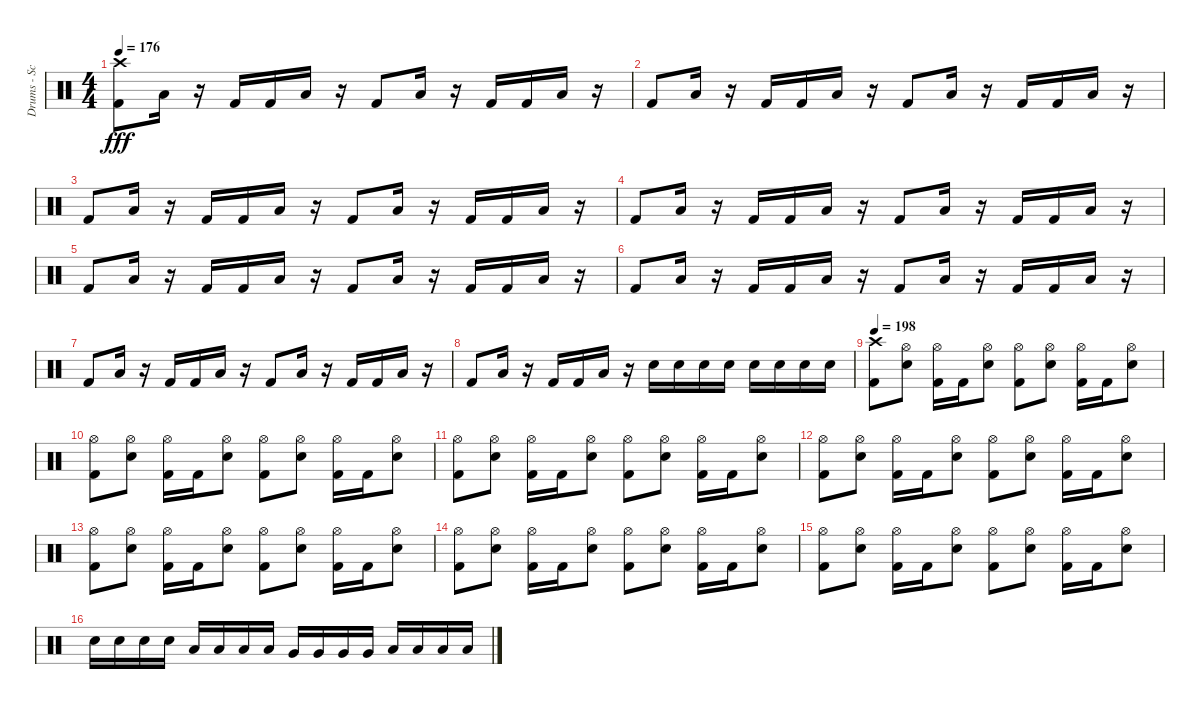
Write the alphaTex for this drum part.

\track ("Drums - Scott" "Drums - Sc") {instrument percussion}
\staff {score}
\articulation defaults
\ts (4 4)
\tempo 176
\clef neutral
\ks c
("Crash high (hit)" "Kick (hit) 2").8{dy fff} "Low Tom (hit)".16 r.16 "Kick (hit) 2".16 "Kick (hit) 2".16 "Low Tom (hit)".16 r.16 "Kick (hit) 2".8 "Low Tom (hit)".16 r.16 "Kick (hit) 2".16 "Kick (hit) 2".16 "Low Tom (hit)".16 r.16 |
"Kick (hit) 2".8 "Low Tom (hit)".16 r.16 "Kick (hit) 2".16 "Kick (hit) 2".16 "Low Tom (hit)".16 r.16 "Kick (hit) 2".8 "Low Tom (hit)".16 r.16 "Kick (hit) 2".16 "Kick (hit) 2".16 "Low Tom (hit)".16 r.16 |
"Kick (hit) 2".8 "Low Tom (hit)".16 r.16 "Kick (hit) 2".16 "Kick (hit) 2".16 "Low Tom (hit)".16 r.16 "Kick (hit) 2".8 "Low Tom (hit)".16 r.16 "Kick (hit) 2".16 "Kick (hit) 2".16 "Low Tom (hit)".16 r.16 |
"Kick (hit) 2".8 "Low Tom (hit)".16 r.16 "Kick (hit) 2".16 "Kick (hit) 2".16 "Low Tom (hit)".16 r.16 "Kick (hit) 2".8 "Low Tom (hit)".16 r.16 "Kick (hit) 2".16 "Kick (hit) 2".16 "Low Tom (hit)".16 r.16 |
"Kick (hit) 2".8 "Low Tom (hit)".16 r.16 "Kick (hit) 2".16 "Kick (hit) 2".16 "Low Tom (hit)".16 r.16 "Kick (hit) 2".8 "Low Tom (hit)".16 r.16 "Kick (hit) 2".16 "Kick (hit) 2".16 "Low Tom (hit)".16 r.16 |
"Kick (hit) 2".8 "Low Tom (hit)".16 r.16 "Kick (hit) 2".16 "Kick (hit) 2".16 "Low Tom (hit)".16 r.16 "Kick (hit) 2".8 "Low Tom (hit)".16 r.16 "Kick (hit) 2".16 "Kick (hit) 2".16 "Low Tom (hit)".16 r.16 |
"Kick (hit) 2".8 "Low Tom (hit)".16 r.16 "Kick (hit) 2".16 "Kick (hit) 2".16 "Low Tom (hit)".16 r.16 "Kick (hit) 2".8 "Low Tom (hit)".16 r.16 "Kick (hit) 2".16 "Kick (hit) 2".16 "Low Tom (hit)".16 r.16 |
"Kick (hit) 2".8 "Low Tom (hit)".16 r.16 "Kick (hit) 2".16 "Kick (hit) 2".16 "Low Tom (hit)".16 r.16 "Electric Snare (hit)".16 "Electric Snare (hit)".16 "Electric Snare (hit)".16 "Electric Snare (hit)".16 "Electric Snare (hit)".16 "Electric Snare (hit)".16 "Electric Snare (hit)".16 "Electric Snare (hit)".16 |
\tempo 198
("Crash high (hit)" "Kick (hit) 2").8 ("Hi-Hat (open)" "Electric Snare (hit)").8 ("Hi-Hat (open)" "Kick (hit) 2").16 "Kick (hit) 2".16 ("Hi-Hat (open)" "Electric Snare (hit)").8 ("Hi-Hat (open)" "Kick (hit) 2").8 ("Hi-Hat (open)" "Electric Snare (hit)").8 ("Hi-Hat (open)" "Kick (hit) 2").16 "Kick (hit) 2".16 ("Hi-Hat (open)" "Electric Snare (hit)").8 |
("Hi-Hat (open)" "Kick (hit) 2").8 ("Hi-Hat (open)" "Electric Snare (hit)").8 ("Hi-Hat (open)" "Kick (hit) 2").16 "Kick (hit) 2".16 ("Hi-Hat (open)" "Electric Snare (hit)").8 ("Hi-Hat (open)" "Kick (hit) 2").8 ("Hi-Hat (open)" "Electric Snare (hit)").8 ("Hi-Hat (open)" "Kick (hit) 2").16 "Kick (hit) 2".16 ("Hi-Hat (open)" "Electric Snare (hit)").8 |
("Hi-Hat (open)" "Kick (hit) 2").8 ("Hi-Hat (open)" "Electric Snare (hit)").8 ("Hi-Hat (open)" "Kick (hit) 2").16 "Kick (hit) 2".16 ("Hi-Hat (open)" "Electric Snare (hit)").8 ("Hi-Hat (open)" "Kick (hit) 2").8 ("Hi-Hat (open)" "Electric Snare (hit)").8 ("Hi-Hat (open)" "Kick (hit) 2").16 "Kick (hit) 2".16 ("Hi-Hat (open)" "Electric Snare (hit)").8 |
("Hi-Hat (open)" "Kick (hit) 2").8 ("Hi-Hat (open)" "Electric Snare (hit)").8 ("Hi-Hat (open)" "Kick (hit) 2").16 "Kick (hit) 2".16 ("Hi-Hat (open)" "Electric Snare (hit)").8 ("Hi-Hat (open)" "Kick (hit) 2").8 ("Hi-Hat (open)" "Electric Snare (hit)").8 ("Hi-Hat (open)" "Kick (hit) 2").16 "Kick (hit) 2".16 ("Hi-Hat (open)" "Electric Snare (hit)").8 |
("Hi-Hat (open)" "Kick (hit) 2").8 ("Hi-Hat (open)" "Electric Snare (hit)").8 ("Hi-Hat (open)" "Kick (hit) 2").16 "Kick (hit) 2".16 ("Hi-Hat (open)" "Electric Snare (hit)").8 ("Hi-Hat (open)" "Kick (hit) 2").8 ("Hi-Hat (open)" "Electric Snare (hit)").8 ("Hi-Hat (open)" "Kick (hit) 2").16 "Kick (hit) 2".16 ("Hi-Hat (open)" "Electric Snare (hit)").8 |
("Hi-Hat (open)" "Kick (hit) 2").8 ("Hi-Hat (open)" "Electric Snare (hit)").8 ("Hi-Hat (open)" "Kick (hit) 2").16 "Kick (hit) 2".16 ("Hi-Hat (open)" "Electric Snare (hit)").8 ("Hi-Hat (open)" "Kick (hit) 2").8 ("Hi-Hat (open)" "Electric Snare (hit)").8 ("Hi-Hat (open)" "Kick (hit) 2").16 "Kick (hit) 2".16 ("Hi-Hat (open)" "Electric Snare (hit)").8 |
("Kick (hit) 2" "Hi-Hat (open)").8 ("Electric Snare (hit)" "Hi-Hat (open)").8 ("Hi-Hat (open)" "Kick (hit) 2").16 "Kick (hit) 2".16 ("Electric Snare (hit)" "Hi-Hat (open)").8 ("Kick (hit) 2" "Hi-Hat (open)").8 ("Electric Snare (hit)" "Hi-Hat (open)").8 ("Hi-Hat (open)" "Kick (hit) 2").16 "Kick (hit) 2".16 ("Electric Snare (hit)" "Hi-Hat (open)").8 |
"Electric Snare (hit)".16 "Electric Snare (hit)".16 "Electric Snare (hit)".16 "Electric Snare (hit)".16 "Low Tom (hit)".16 "Low Tom (hit)".16 "Low Tom (hit)".16 "Low Tom (hit)".16 "Very Low Tom (hit)".16 "Very Low Tom (hit)".16 "Very Low Tom (hit)".16 "Very Low Tom (hit)".16 "Low Floor Tom (hit)".16 "Low Floor Tom (hit)".16 "Low Floor Tom (hit)".16 "Low Floor Tom (hit)".16
